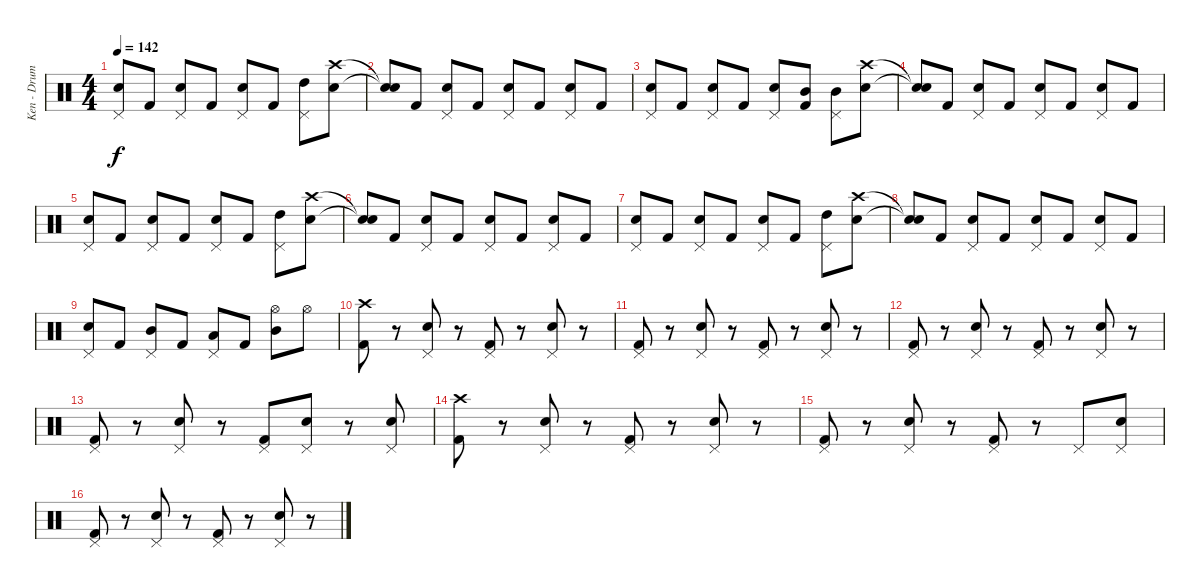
\track ("Ken - Drums" "Ken - Drum") {instrument percussion}
\staff {score}
\articulation defaults
\ts (4 4)
\tempo 142
\clef neutral
\ks c
("Pedal Hi-Hat (hit)" "Electric Snare (hit)").8{dy f} "Kick (hit) 2".8 ("Pedal Hi-Hat (hit)" "Electric Snare (hit)").8 "Kick (hit) 2".8 ("Pedal Hi-Hat (hit)" "Electric Snare (hit)").8 "Kick (hit) 2".8 ("Pedal Hi-Hat (hit)" "High Tom (hit)").8 ("Crash high (hit)" "Electric Snare (hit)").8 |
("Snare (hit)"{t} "Snare (hit)"{t}).8 "Kick (hit) 2".8 ("Pedal Hi-Hat (hit)" "Electric Snare (hit)").8 "Kick (hit) 2".8 ("Pedal Hi-Hat (hit)" "Electric Snare (hit)").8 "Kick (hit) 2".8 ("Pedal Hi-Hat (hit)" "Electric Snare (hit)").8 "Kick (hit) 2".8 |
("Pedal Hi-Hat (hit)" "Electric Snare (hit)").8 "Kick (hit) 2".8 ("Pedal Hi-Hat (hit)" "Electric Snare (hit)").8 "Kick (hit) 2".8 ("Pedal Hi-Hat (hit)" "Electric Snare (hit)").8 ("Mid Tom (hit)" "Kick (hit) 2").8 ("Pedal Hi-Hat (hit)" "Mid Tom (hit)").8 ("Crash high (hit)" "Electric Snare (hit)").8 |
("Snare (hit)"{t} "Snare (hit)"{t}).8 "Kick (hit) 2".8 ("Pedal Hi-Hat (hit)" "Electric Snare (hit)").8 "Kick (hit) 2".8 ("Pedal Hi-Hat (hit)" "Electric Snare (hit)").8 "Kick (hit) 2".8 ("Pedal Hi-Hat (hit)" "Electric Snare (hit)").8 "Kick (hit) 2".8 |
("Pedal Hi-Hat (hit)" "Electric Snare (hit)").8 "Kick (hit) 2".8 ("Pedal Hi-Hat (hit)" "Electric Snare (hit)").8 "Kick (hit) 2".8 ("Pedal Hi-Hat (hit)" "Electric Snare (hit)").8 "Kick (hit) 2".8 ("Pedal Hi-Hat (hit)" "High Tom (hit)").8 ("Crash high (hit)" "Electric Snare (hit)").8 |
("Snare (hit)"{t} "Snare (hit)"{t}).8 "Kick (hit) 2".8 ("Pedal Hi-Hat (hit)" "Electric Snare (hit)").8 "Kick (hit) 2".8 ("Pedal Hi-Hat (hit)" "Electric Snare (hit)").8 "Kick (hit) 2".8 ("Pedal Hi-Hat (hit)" "Electric Snare (hit)").8 "Kick (hit) 2".8 |
("Pedal Hi-Hat (hit)" "Electric Snare (hit)").8 "Kick (hit) 2".8 ("Pedal Hi-Hat (hit)" "Electric Snare (hit)").8 "Kick (hit) 2".8 ("Pedal Hi-Hat (hit)" "Electric Snare (hit)").8 "Kick (hit) 2".8 ("Pedal Hi-Hat (hit)" "High Tom (hit)").8 ("Crash high (hit)" "Electric Snare (hit)").8 |
("Snare (hit)"{t} "Snare (hit)"{t}).8 "Kick (hit) 2".8 ("Pedal Hi-Hat (hit)" "Electric Snare (hit)").8 "Kick (hit) 2".8 ("Pedal Hi-Hat (hit)" "Electric Snare (hit)").8 "Kick (hit) 2".8 ("Pedal Hi-Hat (hit)" "Electric Snare (hit)").8 "Kick (hit) 2".8 |
("Pedal Hi-Hat (hit)" "Electric Snare (hit)").8 "Kick (hit) 2".8 ("Pedal Hi-Hat (hit)" "Mid Tom (hit)").8 "Kick (hit) 2".8 ("Pedal Hi-Hat (hit)" "Low Tom (hit)").8 "Kick (hit) 2".8 ("Hi-Hat (open)" "Mid Tom (hit)").8 "Hi-Hat (open)".8 |
("Crash high (hit)" "Kick (hit) 2").8 r.8 ("Pedal Hi-Hat (hit)" "Electric Snare (hit)").8 r.8 ("Pedal Hi-Hat (hit)" "Kick (hit) 2").8 r.8 ("Pedal Hi-Hat (hit)" "Electric Snare (hit)").8 r.8 |
("Pedal Hi-Hat (hit)" "Kick (hit) 2").8 r.8 ("Pedal Hi-Hat (hit)" "Electric Snare (hit)").8 r.8 ("Pedal Hi-Hat (hit)" "Kick (hit) 2").8 r.8 ("Pedal Hi-Hat (hit)" "Electric Snare (hit)").8 r.8 |
("Pedal Hi-Hat (hit)" "Kick (hit) 2").8 r.8 ("Pedal Hi-Hat (hit)" "Electric Snare (hit)").8 r.8 ("Pedal Hi-Hat (hit)" "Kick (hit) 2").8 r.8 ("Pedal Hi-Hat (hit)" "Electric Snare (hit)").8 r.8 |
("Pedal Hi-Hat (hit)" "Kick (hit) 2").8 r.8 ("Pedal Hi-Hat (hit)" "Electric Snare (hit)").8 r.8 ("Pedal Hi-Hat (hit)" "Kick (hit) 2").8 ("Pedal Hi-Hat (hit)" "Electric Snare (hit)").8 r.8 ("Pedal Hi-Hat (hit)" "Electric Snare (hit)").8 |
("Crash high (hit)" "Kick (hit) 2").8 r.8 ("Pedal Hi-Hat (hit)" "Electric Snare (hit)").8 r.8 ("Pedal Hi-Hat (hit)" "Kick (hit) 2").8 r.8 ("Pedal Hi-Hat (hit)" "Electric Snare (hit)").8 r.8 |
("Pedal Hi-Hat (hit)" "Kick (hit) 2").8 r.8 ("Pedal Hi-Hat (hit)" "Electric Snare (hit)").8 r.8 ("Pedal Hi-Hat (hit)" "Kick (hit) 2").8 r.8 "Pedal Hi-Hat (hit)".8 ("Pedal Hi-Hat (hit)" "Electric Snare (hit)").8 |
("Pedal Hi-Hat (hit)" "Kick (hit) 2").8 r.8 ("Pedal Hi-Hat (hit)" "Electric Snare (hit)").8 r.8 ("Pedal Hi-Hat (hit)" "Kick (hit) 2").8 r.8 ("Pedal Hi-Hat (hit)" "Electric Snare (hit)").8 r.8
